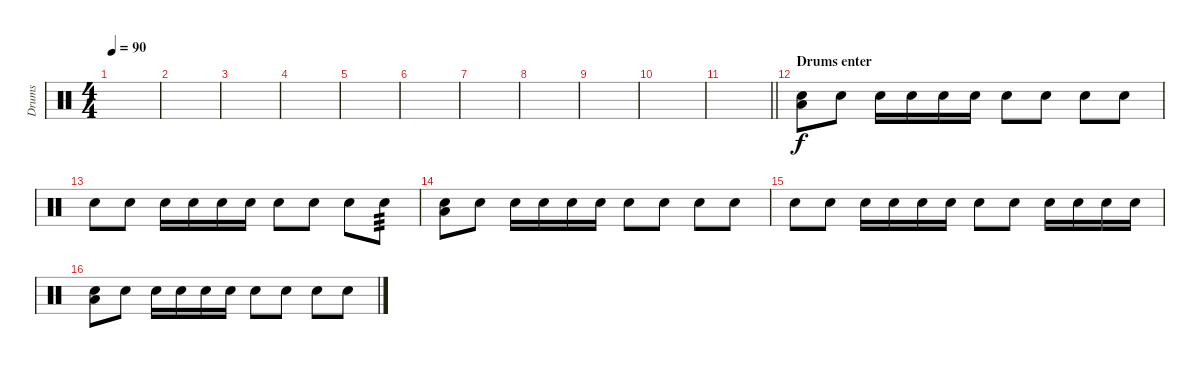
\track ("Drums" "Drums") {instrument percussion}
\staff {score}
\articulation defaults
\ts (4 4)
\tempo 90
\clef neutral
\ks c
|
|
|
|
|
|
|
|
|
|
\barLineRight lightlight
|
\section ("" "Drums enter")
("Electric Snare (hit)" "Low Floor Tom (hit)").8 "Electric Snare (hit)".8 "Electric Snare (hit)".16 "Electric Snare (hit)".16 "Electric Snare (hit)".16 "Electric Snare (hit)".16 "Electric Snare (hit)".8 "Electric Snare (hit)".8 "Electric Snare (hit)".8 "Electric Snare (hit)".8 |
"Electric Snare (hit)".8 "Electric Snare (hit)".8 "Electric Snare (hit)".16 "Electric Snare (hit)".16 "Electric Snare (hit)".16 "Electric Snare (hit)".16 "Electric Snare (hit)".8 "Electric Snare (hit)".8 "Electric Snare (hit)".8 "Electric Snare (hit)".8{tp 3} |
("Electric Snare (hit)" "Low Floor Tom (hit)").8 "Electric Snare (hit)".8 "Electric Snare (hit)".16 "Electric Snare (hit)".16 "Electric Snare (hit)".16 "Electric Snare (hit)".16 "Electric Snare (hit)".8 "Electric Snare (hit)".8 "Electric Snare (hit)".8 "Electric Snare (hit)".8 |
"Electric Snare (hit)".8 "Electric Snare (hit)".8 "Electric Snare (hit)".16 "Electric Snare (hit)".16 "Electric Snare (hit)".16 "Electric Snare (hit)".16 "Electric Snare (hit)".8 "Electric Snare (hit)".8 "Electric Snare (hit)".16 "Electric Snare (hit)".16 "Electric Snare (hit)".16 "Electric Snare (hit)".16 |
("Electric Snare (hit)" "Low Floor Tom (hit)").8 "Electric Snare (hit)".8 "Electric Snare (hit)".16 "Electric Snare (hit)".16 "Electric Snare (hit)".16 "Electric Snare (hit)".16 "Electric Snare (hit)".8 "Electric Snare (hit)".8 "Electric Snare (hit)".8 "Electric Snare (hit)".8
